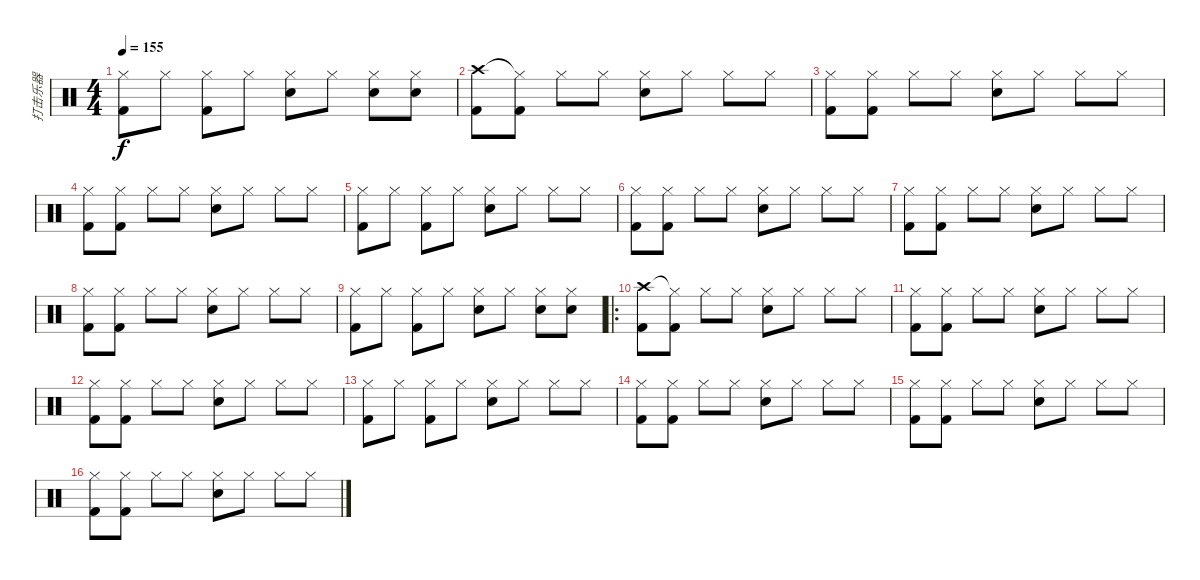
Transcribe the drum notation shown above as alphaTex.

\track ("打击乐器" "打击乐器") {instrument percussion}
\staff {score}
\articulation defaults
\ts (4 4)
\tempo 155
\clef neutral
\ks c
("Hi-Hat (closed)" "Kick (hit) 2").8{dy f} "Hi-Hat (closed)".8 ("Hi-Hat (closed)" "Kick (hit) 2").8 "Hi-Hat (closed)".8 ("Hi-Hat (closed)" "Snare (hit) 2").8 "Hi-Hat (closed)".8 ("Hi-Hat (closed)" "Snare (hit) 2").8 ("Hi-Hat (closed)" "Snare (hit) 2").8 |
("Crash high (hit)" "Kick (hit) 2").8 ("Hi-Hat (closed)"{t} "Kick (hit) 2").8 "Hi-Hat (closed)".8 "Hi-Hat (closed)".8 ("Hi-Hat (closed)" "Snare (hit) 2").8 "Hi-Hat (closed)".8 "Hi-Hat (closed)".8 "Hi-Hat (closed)".8 |
("Hi-Hat (closed)" "Kick (hit) 2").8 ("Hi-Hat (closed)" "Kick (hit) 2").8 "Hi-Hat (closed)".8 "Hi-Hat (closed)".8 ("Hi-Hat (closed)" "Snare (hit) 2").8 "Hi-Hat (closed)".8 "Hi-Hat (closed)".8 "Hi-Hat (closed)".8 |
("Hi-Hat (closed)" "Kick (hit) 2").8 ("Hi-Hat (closed)" "Kick (hit) 2").8 "Hi-Hat (closed)".8 "Hi-Hat (closed)".8 ("Hi-Hat (closed)" "Snare (hit) 2").8 "Hi-Hat (closed)".8 "Hi-Hat (closed)".8 "Hi-Hat (closed)".8 |
("Hi-Hat (closed)" "Kick (hit) 2").8 "Hi-Hat (closed)".8 ("Hi-Hat (closed)" "Kick (hit) 2").8 "Hi-Hat (closed)".8 ("Hi-Hat (closed)" "Snare (hit) 2").8 "Hi-Hat (closed)".8 "Hi-Hat (closed)".8 "Hi-Hat (closed)".8 |
("Hi-Hat (closed)" "Kick (hit) 2").8 ("Hi-Hat (closed)" "Kick (hit) 2").8 "Hi-Hat (closed)".8 "Hi-Hat (closed)".8 ("Hi-Hat (closed)" "Snare (hit) 2").8 "Hi-Hat (closed)".8 "Hi-Hat (closed)".8 "Hi-Hat (closed)".8 |
("Hi-Hat (closed)" "Kick (hit) 2").8 ("Hi-Hat (closed)" "Kick (hit) 2").8 "Hi-Hat (closed)".8 "Hi-Hat (closed)".8 ("Hi-Hat (closed)" "Snare (hit) 2").8 "Hi-Hat (closed)".8 "Hi-Hat (closed)".8 "Hi-Hat (closed)".8 |
("Hi-Hat (closed)" "Kick (hit) 2").8 ("Hi-Hat (closed)" "Kick (hit) 2").8 "Hi-Hat (closed)".8 "Hi-Hat (closed)".8 ("Hi-Hat (closed)" "Snare (hit) 2").8 "Hi-Hat (closed)".8 "Hi-Hat (closed)".8 "Hi-Hat (closed)".8 |
("Hi-Hat (closed)" "Kick (hit) 2").8 "Hi-Hat (closed)".8 ("Hi-Hat (closed)" "Kick (hit) 2").8 "Hi-Hat (closed)".8 ("Hi-Hat (closed)" "Snare (hit) 2").8 "Hi-Hat (closed)".8 ("Hi-Hat (closed)" "Snare (hit) 2").8 ("Hi-Hat (closed)" "Snare (hit) 2").8 |
\ro
("Crash high (hit)" "Kick (hit) 2").8 ("Hi-Hat (closed)"{t} "Kick (hit) 2").8 "Hi-Hat (closed)".8 "Hi-Hat (closed)".8 ("Hi-Hat (closed)" "Snare (hit) 2").8 "Hi-Hat (closed)".8 "Hi-Hat (closed)".8 "Hi-Hat (closed)".8 |
("Hi-Hat (closed)" "Kick (hit) 2").8 ("Hi-Hat (closed)" "Kick (hit) 2").8 "Hi-Hat (closed)".8 "Hi-Hat (closed)".8 ("Hi-Hat (closed)" "Snare (hit) 2").8 "Hi-Hat (closed)".8 "Hi-Hat (closed)".8 "Hi-Hat (closed)".8 |
("Hi-Hat (closed)" "Kick (hit) 2").8 ("Hi-Hat (closed)" "Kick (hit) 2").8 "Hi-Hat (closed)".8 "Hi-Hat (closed)".8 ("Hi-Hat (closed)" "Snare (hit) 2").8 "Hi-Hat (closed)".8 "Hi-Hat (closed)".8 "Hi-Hat (closed)".8 |
("Hi-Hat (closed)" "Kick (hit) 2").8 "Hi-Hat (closed)".8 ("Hi-Hat (closed)" "Kick (hit) 2").8 "Hi-Hat (closed)".8 ("Hi-Hat (closed)" "Snare (hit) 2").8 "Hi-Hat (closed)".8 "Hi-Hat (closed)".8 "Hi-Hat (closed)".8 |
("Hi-Hat (closed)" "Kick (hit) 2").8 ("Hi-Hat (closed)" "Kick (hit) 2").8 "Hi-Hat (closed)".8 "Hi-Hat (closed)".8 ("Hi-Hat (closed)" "Snare (hit) 2").8 "Hi-Hat (closed)".8 "Hi-Hat (closed)".8 "Hi-Hat (closed)".8 |
("Hi-Hat (closed)" "Kick (hit) 2").8 ("Hi-Hat (closed)" "Kick (hit) 2").8 "Hi-Hat (closed)".8 "Hi-Hat (closed)".8 ("Hi-Hat (closed)" "Snare (hit) 2").8 "Hi-Hat (closed)".8 "Hi-Hat (closed)".8 "Hi-Hat (closed)".8 |
("Hi-Hat (closed)" "Kick (hit) 2").8 ("Hi-Hat (closed)" "Kick (hit) 2").8 "Hi-Hat (closed)".8 "Hi-Hat (closed)".8 ("Hi-Hat (closed)" "Snare (hit) 2").8 "Hi-Hat (closed)".8 "Hi-Hat (closed)".8 "Hi-Hat (closed)".8
